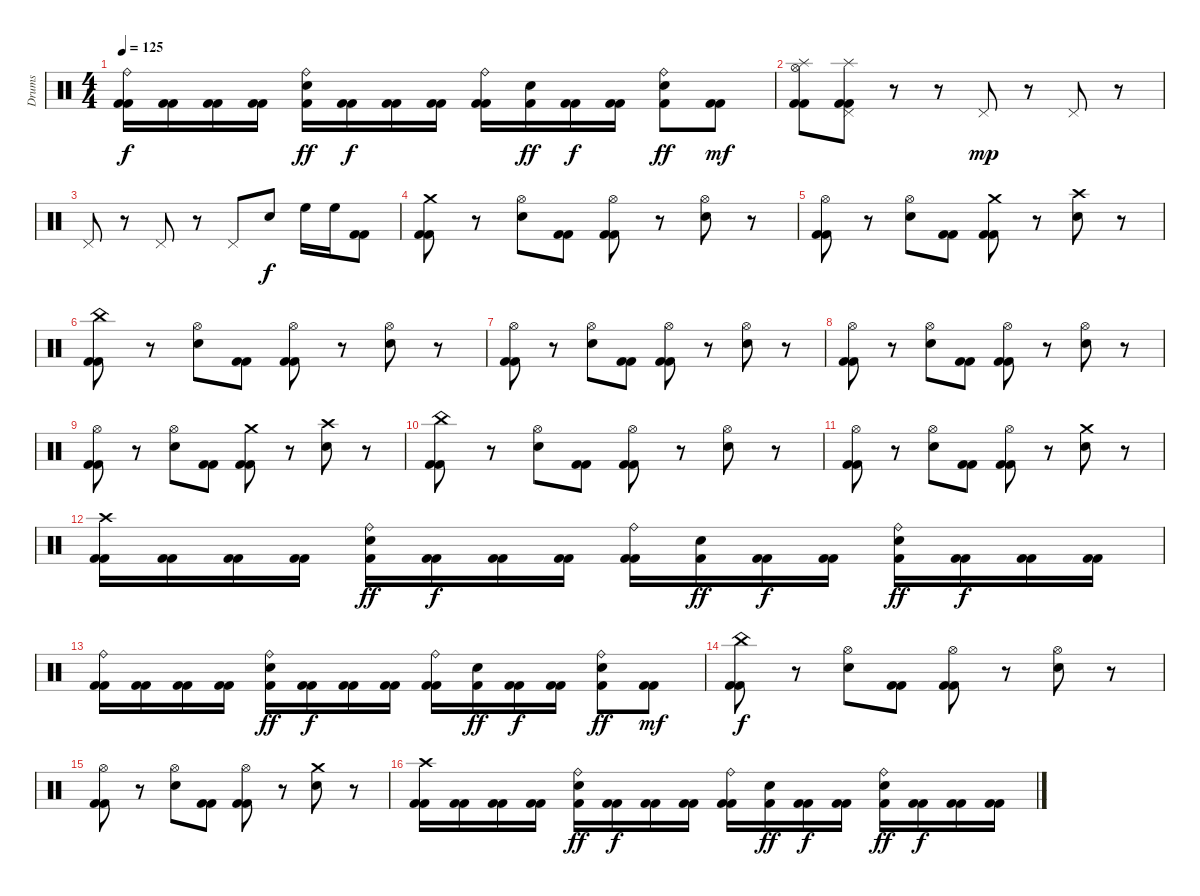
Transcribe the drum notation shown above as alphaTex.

\track ("Drums" "Drums") {instrument percussion}
\staff {score}
\articulation defaults
\ts (4 4)
\tempo 125
\clef neutral
\ks c
("Ride (bell)" "Kick (hit) 2" "Kick (hit) 2").16{dy f} ("Kick (hit) 2" "Kick (hit) 2").16 ("Kick (hit) 2" "Kick (hit) 2").16 ("Kick (hit) 2" "Kick (hit) 2").16 ("Ride (bell)" "Electric Snare (hit)" "Kick (hit) 2").16{dy ff} ("Kick (hit) 2" "Kick (hit) 2").16{dy f} ("Kick (hit) 2" "Kick (hit) 2").16 ("Kick (hit) 2" "Kick (hit) 2").16 ("Ride (bell)" "Kick (hit) 2" "Kick (hit) 2").16 ("Electric Snare (hit)" "Kick (hit) 2").16{dy ff} ("Kick (hit) 2" "Kick (hit) 2").16{dy f} ("Kick (hit) 2" "Kick (hit) 2").16 ("Ride (bell)" "Electric Snare (hit)" "Kick (hit) 2").8{dy ff} ("Kick (hit) 2" "Kick (hit) 2").8{dy mf} |
("Hi-Hat (open)" "Splash (hit)" "Kick (hit) 2" "Kick (hit) 2").8 ("Pedal Hi-Hat (hit)" "Splash (hit)" "Kick (hit) 2" "Kick (hit) 2").8 r.8 r.8 "Pedal Hi-Hat (hit)".8{dy mp} r.8 "Pedal Hi-Hat (hit)".8 r.8 |
"Pedal Hi-Hat (hit)".8 r.8 "Pedal Hi-Hat (hit)".8 r.8 "Pedal Hi-Hat (hit)".8 "Snare (hit) 2".8{dy f} "High Floor Tom (hit)".16 "High Floor Tom (hit)".16 ("Kick (hit) 2" "Kick (hit) 2").8 |
("Crash medium (hit)" "Kick (hit) 2" "Kick (hit) 2").8 r.8 ("Hi-Hat (open)" "Snare (hit) 2").8 ("Kick (hit) 2" "Kick (hit) 2").8 ("Hi-Hat (open)" "Kick (hit) 2" "Kick (hit) 2").8 r.8 ("Hi-Hat (open)" "Snare (hit) 2").8 r.8 |
("Hi-Hat (open)" "Kick (hit) 2" "Kick (hit) 2").8 r.8 ("Hi-Hat (open)" "Snare (hit) 2").8 ("Kick (hit) 2" "Kick (hit) 2").8 ("Crash medium (hit)" "Kick (hit) 2" "Kick (hit) 2").8 r.8 ("Crash high (hit)" "Snare (hit) 2").8 r.8 |
("China (hit)" "Kick (hit) 2" "Kick (hit) 2").8 r.8 ("Hi-Hat (open)" "Snare (hit) 2").8 ("Kick (hit) 2" "Kick (hit) 2").8 ("Hi-Hat (open)" "Kick (hit) 2" "Kick (hit) 2").8 r.8 ("Hi-Hat (open)" "Snare (hit) 2").8 r.8 |
("Hi-Hat (open)" "Kick (hit) 2" "Kick (hit) 2").8 r.8 ("Hi-Hat (open)" "Snare (hit) 2").8 ("Kick (hit) 2" "Kick (hit) 2").8 ("Hi-Hat (open)" "Kick (hit) 2" "Kick (hit) 2").8 r.8 ("Hi-Hat (open)" "Snare (hit) 2").8 r.8 |
("Hi-Hat (open)" "Kick (hit) 2" "Kick (hit) 2").8 r.8 ("Hi-Hat (open)" "Snare (hit) 2").8 ("Kick (hit) 2" "Kick (hit) 2").8 ("Hi-Hat (open)" "Kick (hit) 2" "Kick (hit) 2").8 r.8 ("Hi-Hat (open)" "Snare (hit) 2").8 r.8 |
("Hi-Hat (open)" "Kick (hit) 2" "Kick (hit) 2").8 r.8 ("Hi-Hat (open)" "Snare (hit) 2").8 ("Kick (hit) 2" "Kick (hit) 2").8 ("Crash medium (hit)" "Kick (hit) 2" "Kick (hit) 2").8 r.8 ("Crash high (hit)" "Snare (hit) 2").8 r.8 |
("China (hit)" "Kick (hit) 2" "Kick (hit) 2").8 r.8 ("Hi-Hat (open)" "Snare (hit) 2").8 ("Kick (hit) 2" "Kick (hit) 2").8 ("Hi-Hat (open)" "Kick (hit) 2" "Kick (hit) 2").8 r.8 ("Hi-Hat (open)" "Snare (hit) 2").8 r.8 |
("Hi-Hat (open)" "Kick (hit) 2" "Kick (hit) 2").8 r.8 ("Hi-Hat (open)" "Snare (hit) 2").8 ("Kick (hit) 2" "Kick (hit) 2").8 ("Hi-Hat (open)" "Kick (hit) 2" "Kick (hit) 2").8 r.8 ("Crash medium (hit)" "Snare (hit) 2").8 r.8 |
("Crash high (hit)" "Kick (hit) 2" "Kick (hit) 2").16 ("Kick (hit) 2" "Kick (hit) 2").16 ("Kick (hit) 2" "Kick (hit) 2").16 ("Kick (hit) 2" "Kick (hit) 2").16 ("Ride (bell)" "Electric Snare (hit)" "Kick (hit) 2").16{dy ff} ("Kick (hit) 2" "Kick (hit) 2").16{dy f} ("Kick (hit) 2" "Kick (hit) 2").16 ("Kick (hit) 2" "Kick (hit) 2").16 ("Ride (bell)" "Kick (hit) 2" "Kick (hit) 2").16 ("Electric Snare (hit)" "Kick (hit) 2").16{dy ff} ("Kick (hit) 2" "Kick (hit) 2").16{dy f} ("Kick (hit) 2" "Kick (hit) 2").16 ("Ride (bell)" "Electric Snare (hit)" "Kick (hit) 2").16{dy ff} ("Kick (hit) 2" "Kick (hit) 2").16{dy f} ("Kick (hit) 2" "Kick (hit) 2").16 ("Kick (hit) 2" "Kick (hit) 2").16 |
("Ride (bell)" "Kick (hit) 2" "Kick (hit) 2").16 ("Kick (hit) 2" "Kick (hit) 2").16 ("Kick (hit) 2" "Kick (hit) 2").16 ("Kick (hit) 2" "Kick (hit) 2").16 ("Ride (bell)" "Electric Snare (hit)" "Kick (hit) 2").16{dy ff} ("Kick (hit) 2" "Kick (hit) 2").16{dy f} ("Kick (hit) 2" "Kick (hit) 2").16 ("Kick (hit) 2" "Kick (hit) 2").16 ("Ride (bell)" "Kick (hit) 2" "Kick (hit) 2").16 ("Electric Snare (hit)" "Kick (hit) 2").16{dy ff} ("Kick (hit) 2" "Kick (hit) 2").16{dy f} ("Kick (hit) 2" "Kick (hit) 2").16 ("Ride (bell)" "Electric Snare (hit)" "Kick (hit) 2").8{dy ff} ("Kick (hit) 2" "Kick (hit) 2").8{dy mf} |
("China (hit)" "Kick (hit) 2" "Kick (hit) 2").8{dy f} r.8 ("Hi-Hat (open)" "Snare (hit) 2").8 ("Kick (hit) 2" "Kick (hit) 2").8 ("Hi-Hat (open)" "Kick (hit) 2" "Kick (hit) 2").8 r.8 ("Hi-Hat (open)" "Snare (hit) 2").8 r.8 |
("Hi-Hat (open)" "Kick (hit) 2" "Kick (hit) 2").8 r.8 ("Hi-Hat (open)" "Snare (hit) 2").8 ("Kick (hit) 2" "Kick (hit) 2").8 ("Hi-Hat (open)" "Kick (hit) 2" "Kick (hit) 2").8 r.8 ("Crash medium (hit)" "Snare (hit) 2").8 r.8 |
("Crash high (hit)" "Kick (hit) 2" "Kick (hit) 2").16 ("Kick (hit) 2" "Kick (hit) 2").16 ("Kick (hit) 2" "Kick (hit) 2").16 ("Kick (hit) 2" "Kick (hit) 2").16 ("Ride (bell)" "Electric Snare (hit)" "Kick (hit) 2").16{dy ff} ("Kick (hit) 2" "Kick (hit) 2").16{dy f} ("Kick (hit) 2" "Kick (hit) 2").16 ("Kick (hit) 2" "Kick (hit) 2").16 ("Ride (bell)" "Kick (hit) 2" "Kick (hit) 2").16 ("Electric Snare (hit)" "Kick (hit) 2").16{dy ff} ("Kick (hit) 2" "Kick (hit) 2").16{dy f} ("Kick (hit) 2" "Kick (hit) 2").16 ("Ride (bell)" "Electric Snare (hit)" "Kick (hit) 2").16{dy ff} ("Kick (hit) 2" "Kick (hit) 2").16{dy f} ("Kick (hit) 2" "Kick (hit) 2").16 ("Kick (hit) 2" "Kick (hit) 2").16
